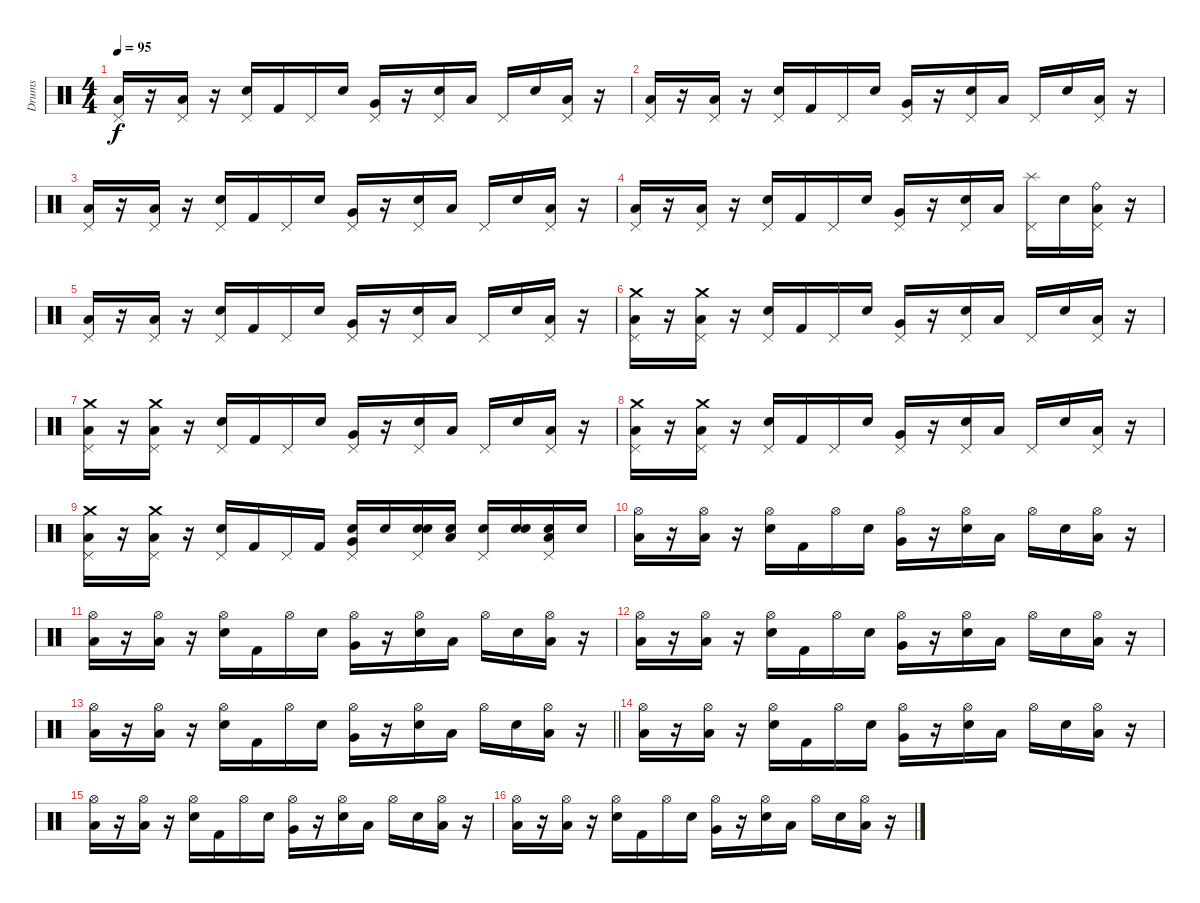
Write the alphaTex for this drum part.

\track ("Drums" "Drums") {instrument percussion}
\staff {score}
\articulation defaults
\ts (4 4)
\tempo 95
\clef neutral
\ks c
("Pedal Hi-Hat (hit)" "Low Floor Tom (hit)").16{dy f} r.16 ("Pedal Hi-Hat (hit)" "Low Floor Tom (hit)").16 r.16 ("Pedal Hi-Hat (hit)" "Snare (hit) 2").16 "Kick (hit) 2".16 "Pedal Hi-Hat (hit)".16 "Snare (hit) 2".16 ("Pedal Hi-Hat (hit)" "Very Low Tom (hit)").16 r.16 ("Pedal Hi-Hat (hit)" "Snare (hit) 2").16 "Low Tom (hit)".16 "Pedal Hi-Hat (hit)".16 "Snare (hit) 2".16 ("Pedal Hi-Hat (hit)" "Low Floor Tom (hit)").16 r.16 |
("Pedal Hi-Hat (hit)" "Low Floor Tom (hit)").16 r.16 ("Pedal Hi-Hat (hit)" "Low Floor Tom (hit)").16 r.16 ("Pedal Hi-Hat (hit)" "Snare (hit) 2").16 "Kick (hit) 2".16 "Pedal Hi-Hat (hit)".16 "Snare (hit) 2".16 ("Pedal Hi-Hat (hit)" "Very Low Tom (hit)").16 r.16 ("Pedal Hi-Hat (hit)" "Snare (hit) 2").16 "Low Tom (hit)".16 "Pedal Hi-Hat (hit)".16 "Snare (hit) 2".16 ("Pedal Hi-Hat (hit)" "Low Floor Tom (hit)").16 r.16 |
("Pedal Hi-Hat (hit)" "Low Floor Tom (hit)").16 r.16 ("Pedal Hi-Hat (hit)" "Low Floor Tom (hit)").16 r.16 ("Pedal Hi-Hat (hit)" "Snare (hit) 2").16 "Kick (hit) 2".16 "Pedal Hi-Hat (hit)".16 "Snare (hit) 2".16 ("Pedal Hi-Hat (hit)" "Very Low Tom (hit)").16 r.16 ("Pedal Hi-Hat (hit)" "Snare (hit) 2").16 "Low Tom (hit)".16 "Pedal Hi-Hat (hit)".16 "Snare (hit) 2".16 ("Pedal Hi-Hat (hit)" "Low Floor Tom (hit)").16 r.16 |
("Pedal Hi-Hat (hit)" "Low Floor Tom (hit)").16 r.16 ("Pedal Hi-Hat (hit)" "Low Floor Tom (hit)").16 r.16 ("Pedal Hi-Hat (hit)" "Snare (hit) 2").16 "Kick (hit) 2".16 "Pedal Hi-Hat (hit)".16 "Snare (hit) 2".16 ("Pedal Hi-Hat (hit)" "Very Low Tom (hit)").16 r.16 ("Pedal Hi-Hat (hit)" "Snare (hit) 2").16 "Low Tom (hit)".16 ("Pedal Hi-Hat (hit)" "Splash (hit)").16 "Snare (hit) 2".16 ("Pedal Hi-Hat (hit)" "Ride (bell)" "Low Floor Tom (hit)").16 r.16 |
("Pedal Hi-Hat (hit)" "Low Floor Tom (hit)").16 r.16 ("Pedal Hi-Hat (hit)" "Low Floor Tom (hit)").16 r.16 ("Pedal Hi-Hat (hit)" "Snare (hit) 2").16 "Kick (hit) 2".16 "Pedal Hi-Hat (hit)".16 "Snare (hit) 2".16 ("Pedal Hi-Hat (hit)" "Very Low Tom (hit)").16 r.16 ("Pedal Hi-Hat (hit)" "Snare (hit) 2").16 "Low Tom (hit)".16 "Pedal Hi-Hat (hit)".16 "Snare (hit) 2".16 ("Pedal Hi-Hat (hit)" "Low Floor Tom (hit)").16 r.16 |
("Pedal Hi-Hat (hit)" "Crash medium (hit)" "Low Floor Tom (hit)").16 r.16 ("Pedal Hi-Hat (hit)" "Crash medium (hit)" "Low Floor Tom (hit)").16 r.16 ("Pedal Hi-Hat (hit)" "Snare (hit) 2").16 "Kick (hit) 2".16 "Pedal Hi-Hat (hit)".16 "Snare (hit) 2".16 ("Pedal Hi-Hat (hit)" "Very Low Tom (hit)").16 r.16 ("Pedal Hi-Hat (hit)" "Snare (hit) 2").16 "Low Tom (hit)".16 "Pedal Hi-Hat (hit)".16 "Snare (hit) 2".16 ("Pedal Hi-Hat (hit)" "Low Floor Tom (hit)").16 r.16 |
("Pedal Hi-Hat (hit)" "Crash medium (hit)" "Low Floor Tom (hit)").16 r.16 ("Pedal Hi-Hat (hit)" "Crash medium (hit)" "Low Floor Tom (hit)").16 r.16 ("Pedal Hi-Hat (hit)" "Snare (hit) 2").16 "Kick (hit) 2".16 "Pedal Hi-Hat (hit)".16 "Snare (hit) 2".16 ("Pedal Hi-Hat (hit)" "Very Low Tom (hit)").16 r.16 ("Pedal Hi-Hat (hit)" "Snare (hit) 2").16 "Low Tom (hit)".16 "Pedal Hi-Hat (hit)".16 "Snare (hit) 2".16 ("Pedal Hi-Hat (hit)" "Low Floor Tom (hit)").16 r.16 |
("Pedal Hi-Hat (hit)" "Crash medium (hit)" "Low Floor Tom (hit)").16 r.16 ("Pedal Hi-Hat (hit)" "Crash medium (hit)" "Low Floor Tom (hit)").16 r.16 ("Pedal Hi-Hat (hit)" "Snare (hit) 2").16 "Kick (hit) 2".16 "Pedal Hi-Hat (hit)".16 "Snare (hit) 2".16 ("Pedal Hi-Hat (hit)" "Very Low Tom (hit)").16 r.16 ("Pedal Hi-Hat (hit)" "Snare (hit) 2").16 "Low Tom (hit)".16 "Pedal Hi-Hat (hit)".16 "Snare (hit) 2".16 ("Pedal Hi-Hat (hit)" "Low Floor Tom (hit)").16 r.16 |
("Pedal Hi-Hat (hit)" "Crash medium (hit)" "Low Floor Tom (hit)").16 r.16 ("Pedal Hi-Hat (hit)" "Crash medium (hit)" "Low Floor Tom (hit)").16 r.16 ("Pedal Hi-Hat (hit)" "Snare (hit) 2").16 "Kick (hit) 2".16 "Pedal Hi-Hat (hit)".16 "Kick (hit) 2".16 ("Pedal Hi-Hat (hit)" "Snare (hit) 2" "Very Low Tom (hit)").16 "Snare (hit) 2".16 ("Pedal Hi-Hat (hit)" "Snare (hit) 2" "Snare (hit) 2").16 ("Snare (hit) 2" "Low Tom (hit)").16 ("Pedal Hi-Hat (hit)" "Snare (hit) 2").16 ("Snare (hit) 2" "Snare (hit) 2").16 ("Pedal Hi-Hat (hit)" "Snare (hit) 2" "Low Floor Tom (hit)").16 "Snare (hit) 2".16 |
("Hi-Hat (open)" "Low Floor Tom (hit)").16 r.16 ("Hi-Hat (open)" "Low Floor Tom (hit)").16 r.16 ("Hi-Hat (open)" "Snare (hit) 2").16 "Kick (hit) 2".16 "Hi-Hat (open)".16 "Snare (hit) 2".16 ("Hi-Hat (open)" "Very Low Tom (hit)").16 r.16 ("Hi-Hat (open)" "Snare (hit) 2").16 "Low Tom (hit)".16 "Hi-Hat (open)".16 "Snare (hit) 2".16 ("Hi-Hat (open)" "Low Floor Tom (hit)").16 r.16 |
("Hi-Hat (open)" "Low Floor Tom (hit)").16 r.16 ("Hi-Hat (open)" "Low Floor Tom (hit)").16 r.16 ("Hi-Hat (open)" "Snare (hit) 2").16 "Kick (hit) 2".16 "Hi-Hat (open)".16 "Snare (hit) 2".16 ("Hi-Hat (open)" "Very Low Tom (hit)").16 r.16 ("Hi-Hat (open)" "Snare (hit) 2").16 "Low Tom (hit)".16 "Hi-Hat (open)".16 "Snare (hit) 2".16 ("Hi-Hat (open)" "Low Floor Tom (hit)").16 r.16 |
("Hi-Hat (open)" "Low Floor Tom (hit)").16 r.16 ("Hi-Hat (open)" "Low Floor Tom (hit)").16 r.16 ("Hi-Hat (open)" "Snare (hit) 2").16 "Kick (hit) 2".16 "Hi-Hat (open)".16 "Snare (hit) 2".16 ("Hi-Hat (open)" "Very Low Tom (hit)").16 r.16 ("Hi-Hat (open)" "Snare (hit) 2").16 "Low Tom (hit)".16 "Hi-Hat (open)".16 "Snare (hit) 2".16 ("Hi-Hat (open)" "Low Floor Tom (hit)").16 r.16 |
\barLineRight lightlight
("Hi-Hat (open)" "Low Floor Tom (hit)").16 r.16 ("Hi-Hat (open)" "Low Floor Tom (hit)").16 r.16 ("Hi-Hat (open)" "Snare (hit) 2").16 "Kick (hit) 2".16 "Hi-Hat (open)".16 "Snare (hit) 2".16 ("Hi-Hat (open)" "Very Low Tom (hit)").16 r.16 ("Hi-Hat (open)" "Snare (hit) 2").16 "Low Tom (hit)".16 "Hi-Hat (open)".16 "Snare (hit) 2".16 ("Hi-Hat (open)" "Low Floor Tom (hit)").16 r.16 |
("Hi-Hat (open)" "Low Floor Tom (hit)").16 r.16 ("Hi-Hat (open)" "Low Floor Tom (hit)").16 r.16 ("Hi-Hat (open)" "Snare (hit) 2").16 "Kick (hit) 2".16 "Hi-Hat (open)".16 "Snare (hit) 2".16 ("Hi-Hat (open)" "Very Low Tom (hit)").16 r.16 ("Hi-Hat (open)" "Snare (hit) 2").16 "Low Tom (hit)".16 "Hi-Hat (open)".16 "Snare (hit) 2".16 ("Hi-Hat (open)" "Low Floor Tom (hit)").16 r.16 |
("Hi-Hat (open)" "Low Floor Tom (hit)").16 r.16 ("Hi-Hat (open)" "Low Floor Tom (hit)").16 r.16 ("Hi-Hat (open)" "Snare (hit) 2").16 "Kick (hit) 2".16 "Hi-Hat (open)".16 "Snare (hit) 2".16 ("Hi-Hat (open)" "Very Low Tom (hit)").16 r.16 ("Hi-Hat (open)" "Snare (hit) 2").16 "Low Tom (hit)".16 "Hi-Hat (open)".16 "Snare (hit) 2".16 ("Hi-Hat (open)" "Low Floor Tom (hit)").16 r.16 |
("Hi-Hat (open)" "Low Floor Tom (hit)").16 r.16 ("Hi-Hat (open)" "Low Floor Tom (hit)").16 r.16 ("Hi-Hat (open)" "Snare (hit) 2").16 "Kick (hit) 2".16 "Hi-Hat (open)".16 "Snare (hit) 2".16 ("Hi-Hat (open)" "Very Low Tom (hit)").16 r.16 ("Hi-Hat (open)" "Snare (hit) 2").16 "Low Tom (hit)".16 "Hi-Hat (open)".16 "Snare (hit) 2".16 ("Hi-Hat (open)" "Low Floor Tom (hit)").16 r.16
